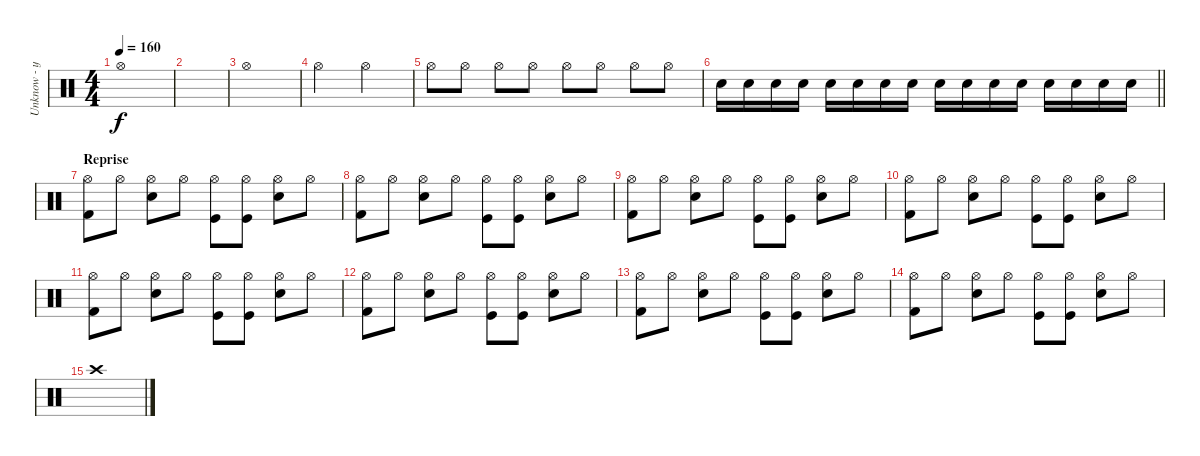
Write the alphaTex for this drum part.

\track ("Unknow - ударные" "Unknow - у") {instrument percussion}
\staff {score}
\articulation defaults
\ts (4 4)
\tempo 160
\clef neutral
\ks c "Hi-Hat (open)".1{dy f}
|
|
"Hi-Hat (open)".1 |
"Hi-Hat (open)".2 "Hi-Hat (open)".2 |
"Hi-Hat (open)".8 "Hi-Hat (open)".8 "Hi-Hat (open)".8 "Hi-Hat (open)".8 "Hi-Hat (open)".8 "Hi-Hat (open)".8 "Hi-Hat (open)".8 "Hi-Hat (open)".8 |
\barLineRight lightlight "Snare (hit) 2".16 "Snare (hit) 2".16 "Snare (hit) 2".16 "Snare (hit) 2".16 "Snare (hit) 2".16 "Snare (hit) 2".16 "Snare (hit) 2".16 "Snare (hit) 2".16 "Snare (hit) 2".16 "Snare (hit) 2".16 "Snare (hit) 2".16 "Snare (hit) 2".16 "Snare (hit) 2".16 "Snare (hit) 2".16 "Snare (hit) 2".16 "Snare (hit) 2".16
|
\section ("" "Reprise")
("Hi-Hat (open)" "Kick (hit) 2").8 "Hi-Hat (open)".8 ("Hi-Hat (open)" "Snare (hit) 2").8 "Hi-Hat (open)".8 ("Hi-Hat (open)" "Kick (hit)").8 ("Hi-Hat (open)" "Kick (hit)").8 ("Hi-Hat (open)" "Snare (hit) 2").8 "Hi-Hat (open)".8 |
("Hi-Hat (open)" "Kick (hit) 2").8 "Hi-Hat (open)".8 ("Hi-Hat (open)" "Snare (hit) 2").8 "Hi-Hat (open)".8 ("Hi-Hat (open)" "Kick (hit)").8 ("Hi-Hat (open)" "Kick (hit)").8 ("Hi-Hat (open)" "Snare (hit) 2").8 "Hi-Hat (open)".8 |
("Hi-Hat (open)" "Kick (hit) 2").8 "Hi-Hat (open)".8 ("Hi-Hat (open)" "Snare (hit) 2").8 "Hi-Hat (open)".8 ("Hi-Hat (open)" "Kick (hit)").8 ("Hi-Hat (open)" "Kick (hit)").8 ("Hi-Hat (open)" "Snare (hit) 2").8 "Hi-Hat (open)".8 |
("Hi-Hat (open)" "Kick (hit) 2").8 "Hi-Hat (open)".8 ("Hi-Hat (open)" "Snare (hit) 2").8 "Hi-Hat (open)".8 ("Hi-Hat (open)" "Kick (hit)").8 ("Hi-Hat (open)" "Kick (hit)").8 ("Hi-Hat (open)" "Snare (hit) 2").8 "Hi-Hat (open)".8 |
("Hi-Hat (open)" "Kick (hit) 2").8 "Hi-Hat (open)".8 ("Hi-Hat (open)" "Snare (hit) 2").8 "Hi-Hat (open)".8 ("Hi-Hat (open)" "Kick (hit)").8 ("Hi-Hat (open)" "Kick (hit)").8 ("Hi-Hat (open)" "Snare (hit) 2").8 "Hi-Hat (open)".8 |
("Hi-Hat (open)" "Kick (hit) 2").8 "Hi-Hat (open)".8 ("Hi-Hat (open)" "Snare (hit) 2").8 "Hi-Hat (open)".8 ("Hi-Hat (open)" "Kick (hit)").8 ("Hi-Hat (open)" "Kick (hit)").8 ("Hi-Hat (open)" "Snare (hit) 2").8 "Hi-Hat (open)".8 |
("Hi-Hat (open)" "Kick (hit) 2").8 "Hi-Hat (open)".8 ("Hi-Hat (open)" "Snare (hit) 2").8 "Hi-Hat (open)".8 ("Hi-Hat (open)" "Kick (hit)").8 ("Hi-Hat (open)" "Kick (hit)").8 ("Hi-Hat (open)" "Snare (hit) 2").8 "Hi-Hat (open)".8 |
("Hi-Hat (open)" "Kick (hit) 2").8 "Hi-Hat (open)".8 ("Hi-Hat (open)" "Snare (hit) 2").8 "Hi-Hat (open)".8 ("Hi-Hat (open)" "Kick (hit)").8 ("Hi-Hat (open)" "Kick (hit)").8 ("Hi-Hat (open)" "Snare (hit) 2").8 "Hi-Hat (open)".8 |
"Crash high (hit)".1
